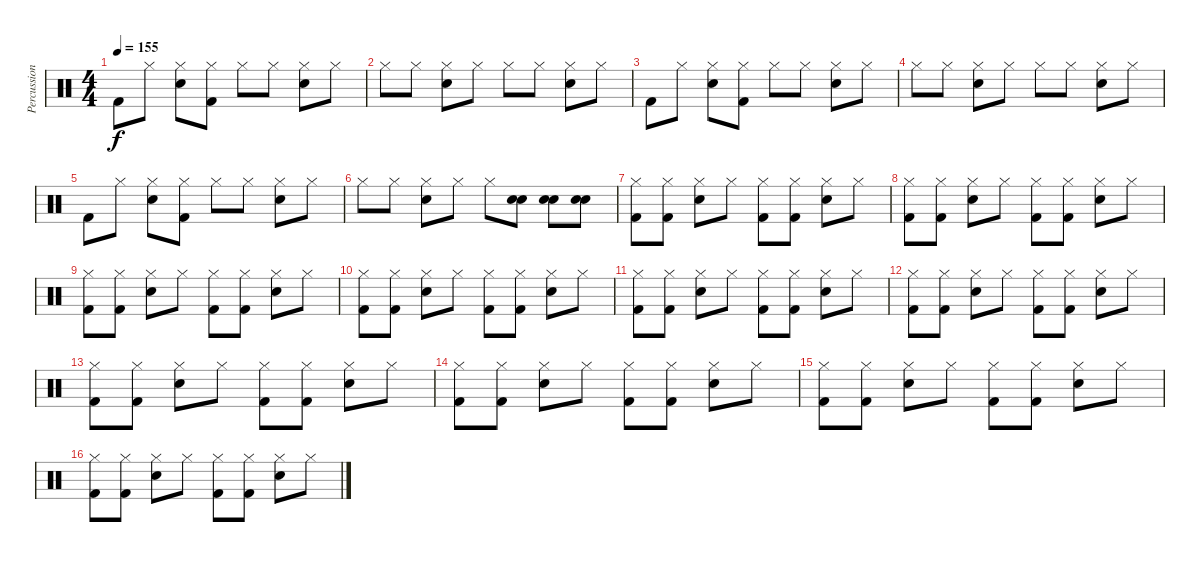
\track ("Percussion" "Percussion") {instrument percussion}
\staff {score}
\articulation defaults
\ts (4 4)
\tempo 155
\clef neutral
\ks c "Kick (hit) 2".8{dy f} "Hi-Hat (closed)".8
("Hi-Hat (closed)" "Electric Snare (hit)").8 ("Hi-Hat (closed)" "Kick (hit) 2").8 "Hi-Hat (closed)".8 "Hi-Hat (closed)".8 ("Hi-Hat (closed)" "Electric Snare (hit)").8 "Hi-Hat (closed)".8 |
"Hi-Hat (closed)".8 "Hi-Hat (closed)".8 ("Hi-Hat (closed)" "Electric Snare (hit)").8 "Hi-Hat (closed)".8 "Hi-Hat (closed)".8 "Hi-Hat (closed)".8 ("Hi-Hat (closed)" "Electric Snare (hit)").8 "Hi-Hat (closed)".8 |
"Kick (hit) 2".8 "Hi-Hat (closed)".8 ("Hi-Hat (closed)" "Electric Snare (hit)").8 ("Hi-Hat (closed)" "Kick (hit) 2").8 "Hi-Hat (closed)".8 "Hi-Hat (closed)".8 ("Hi-Hat (closed)" "Electric Snare (hit)").8 "Hi-Hat (closed)".8 |
"Hi-Hat (closed)".8 "Hi-Hat (closed)".8 ("Hi-Hat (closed)" "Electric Snare (hit)").8 "Hi-Hat (closed)".8 "Hi-Hat (closed)".8 "Hi-Hat (closed)".8 ("Hi-Hat (closed)" "Electric Snare (hit)").8 "Hi-Hat (closed)".8 |
"Kick (hit) 2".8 "Hi-Hat (closed)".8 ("Hi-Hat (closed)" "Electric Snare (hit)").8 ("Hi-Hat (closed)" "Kick (hit) 2").8 "Hi-Hat (closed)".8 "Hi-Hat (closed)".8 ("Hi-Hat (closed)" "Electric Snare (hit)").8 "Hi-Hat (closed)".8 |
"Hi-Hat (closed)".8 "Hi-Hat (closed)".8 ("Hi-Hat (closed)" "Electric Snare (hit)").8 "Hi-Hat (closed)".8 "Hi-Hat (closed)".8 ("Electric Snare (hit)" "Electric Snare (hit)").8 ("Electric Snare (hit)" "Electric Snare (hit)").8 ("Electric Snare (hit)" "Electric Snare (hit)").8 |
("Hi-Hat (closed)" "Kick (hit) 2").8 ("Hi-Hat (closed)" "Kick (hit) 2").8 ("Hi-Hat (closed)" "Electric Snare (hit)").8 "Hi-Hat (closed)".8 ("Hi-Hat (closed)" "Kick (hit) 2").8 ("Hi-Hat (closed)" "Kick (hit) 2").8 ("Hi-Hat (closed)" "Electric Snare (hit)").8 "Hi-Hat (closed)".8 |
("Hi-Hat (closed)" "Kick (hit) 2").8 ("Hi-Hat (closed)" "Kick (hit) 2").8 ("Hi-Hat (closed)" "Electric Snare (hit)").8 "Hi-Hat (closed)".8 ("Hi-Hat (closed)" "Kick (hit) 2").8 ("Hi-Hat (closed)" "Kick (hit) 2").8 ("Hi-Hat (closed)" "Electric Snare (hit)").8 "Hi-Hat (closed)".8 |
("Hi-Hat (closed)" "Kick (hit) 2").8 ("Hi-Hat (closed)" "Kick (hit) 2").8 ("Hi-Hat (closed)" "Electric Snare (hit)").8 "Hi-Hat (closed)".8 ("Hi-Hat (closed)" "Kick (hit) 2").8 ("Hi-Hat (closed)" "Kick (hit) 2").8 ("Hi-Hat (closed)" "Electric Snare (hit)").8 "Hi-Hat (closed)".8 |
("Hi-Hat (closed)" "Kick (hit) 2").8 ("Hi-Hat (closed)" "Kick (hit) 2").8 ("Hi-Hat (closed)" "Electric Snare (hit)").8 "Hi-Hat (closed)".8 ("Hi-Hat (closed)" "Kick (hit) 2").8 ("Hi-Hat (closed)" "Kick (hit) 2").8 ("Hi-Hat (closed)" "Electric Snare (hit)").8 "Hi-Hat (closed)".8 |
("Hi-Hat (closed)" "Kick (hit) 2").8 ("Hi-Hat (closed)" "Kick (hit) 2").8 ("Hi-Hat (closed)" "Electric Snare (hit)").8 "Hi-Hat (closed)".8 ("Hi-Hat (closed)" "Kick (hit) 2").8 ("Hi-Hat (closed)" "Kick (hit) 2").8 ("Hi-Hat (closed)" "Electric Snare (hit)").8 "Hi-Hat (closed)".8 |
("Hi-Hat (closed)" "Kick (hit) 2").8 ("Hi-Hat (closed)" "Kick (hit) 2").8 ("Hi-Hat (closed)" "Electric Snare (hit)").8 "Hi-Hat (closed)".8 ("Hi-Hat (closed)" "Kick (hit) 2").8 ("Hi-Hat (closed)" "Kick (hit) 2").8 ("Hi-Hat (closed)" "Electric Snare (hit)").8 "Hi-Hat (closed)".8 |
("Hi-Hat (closed)" "Kick (hit) 2").8 ("Hi-Hat (closed)" "Kick (hit) 2").8 ("Hi-Hat (closed)" "Electric Snare (hit)").8 "Hi-Hat (closed)".8 ("Hi-Hat (closed)" "Kick (hit) 2").8 ("Hi-Hat (closed)" "Kick (hit) 2").8 ("Hi-Hat (closed)" "Electric Snare (hit)").8 "Hi-Hat (closed)".8 |
("Hi-Hat (closed)" "Kick (hit) 2").8 ("Hi-Hat (closed)" "Kick (hit) 2").8 ("Hi-Hat (closed)" "Electric Snare (hit)").8 "Hi-Hat (closed)".8 ("Hi-Hat (closed)" "Kick (hit) 2").8 ("Hi-Hat (closed)" "Kick (hit) 2").8 ("Hi-Hat (closed)" "Electric Snare (hit)").8 "Hi-Hat (closed)".8 |
("Hi-Hat (closed)" "Kick (hit) 2").8 ("Hi-Hat (closed)" "Kick (hit) 2").8 ("Hi-Hat (closed)" "Electric Snare (hit)").8 "Hi-Hat (closed)".8 ("Hi-Hat (closed)" "Kick (hit) 2").8 ("Hi-Hat (closed)" "Kick (hit) 2").8 ("Hi-Hat (closed)" "Electric Snare (hit)").8 "Hi-Hat (closed)".8 |
("Hi-Hat (closed)" "Kick (hit) 2").8 ("Hi-Hat (closed)" "Kick (hit) 2").8 ("Hi-Hat (closed)" "Electric Snare (hit)").8 "Hi-Hat (closed)".8 ("Hi-Hat (closed)" "Kick (hit) 2").8 ("Hi-Hat (closed)" "Kick (hit) 2").8 ("Hi-Hat (closed)" "Electric Snare (hit)").8 "Hi-Hat (closed)".8
